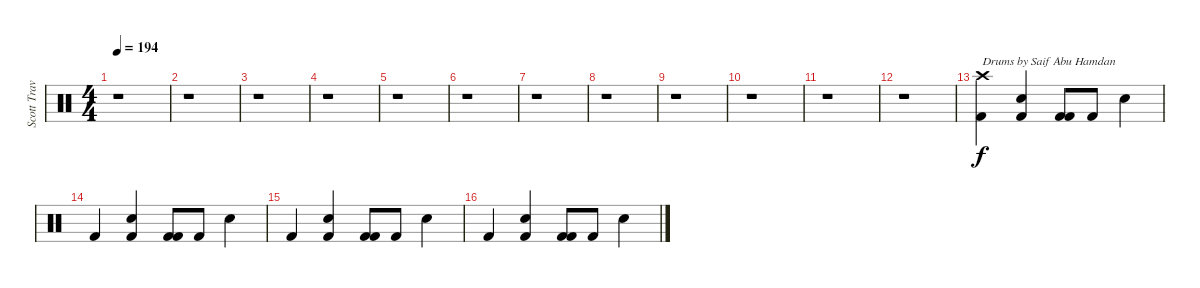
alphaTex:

\track ("Scott Travis" "Scott Trav") {instrument percussion}
\staff {score}
\articulation defaults
\ts (4 4)
\tempo 194
\clef neutral
\ks c
r.1{dy f} |
r.1 |
r.1 |
r.1 |
r.1 |
r.1 |
r.1 |
r.1 |
r.1 |
r.1 |
r.1 |
r.1 |
("Kick (hit) 2" "Crash high (hit)").4{txt "Drums by Saif Abu Hamdan"} ("Kick (hit) 2" "Snare (hit) 2").4 ("Kick (hit) 2" "Kick (hit) 2").8 "Kick (hit) 2".8 "Snare (hit) 2".4 |
"Kick (hit) 2".4 ("Kick (hit) 2" "Snare (hit) 2").4 ("Kick (hit) 2" "Kick (hit) 2").8 "Kick (hit) 2".8 "Snare (hit) 2".4 |
"Kick (hit) 2".4 ("Kick (hit) 2" "Snare (hit) 2").4 ("Kick (hit) 2" "Kick (hit) 2").8 "Kick (hit) 2".8 "Snare (hit) 2".4 |
"Kick (hit) 2".4 ("Kick (hit) 2" "Snare (hit) 2").4 ("Kick (hit) 2" "Kick (hit) 2").8 "Kick (hit) 2".8 "Snare (hit) 2".4
